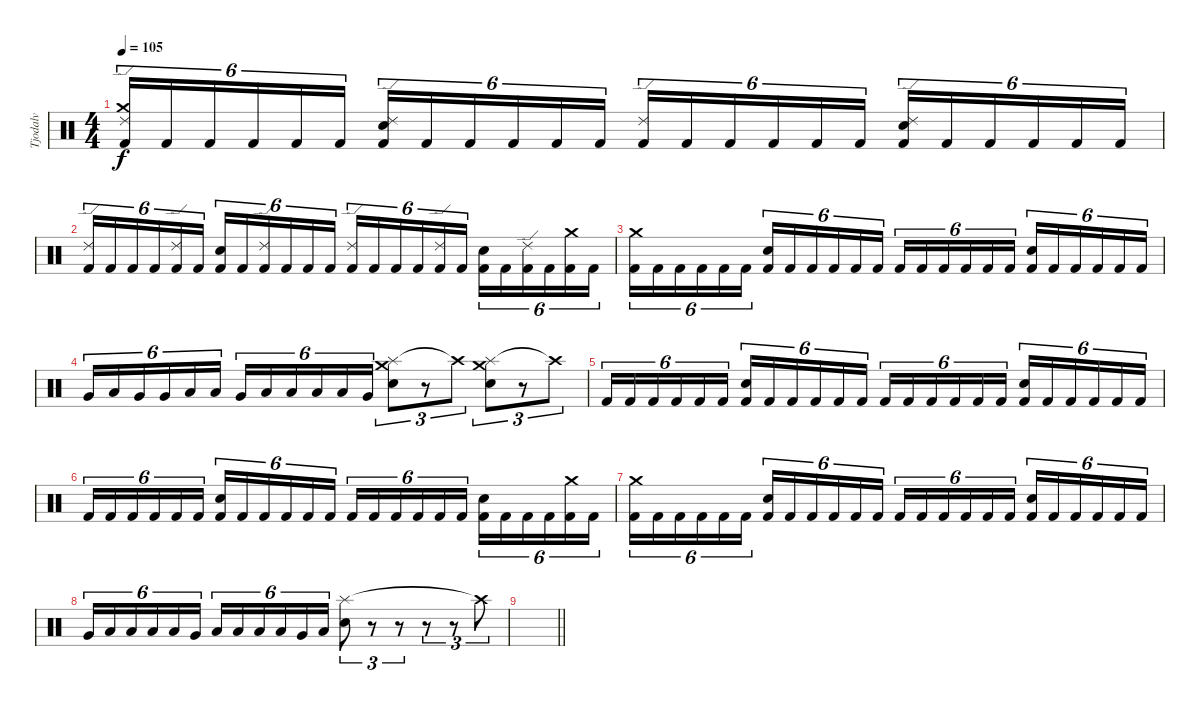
\track ("Tjodalv" "Tjodalv") {instrument percussion}
\staff {score}
\articulation defaults
\ts (4 4)
\tempo 105
\clef neutral
\ks c
("Kick (hit) 2" "Crash medium (hit)" "Ride (edge) 2").16{tu (6 4) dy f} "Kick (hit) 2".16{tu (6 4)} "Kick (hit) 2".16{tu (6 4)} "Kick (hit) 2".16{tu (6 4)} "Kick (hit) 2".16{tu (6 4)} "Kick (hit) 2".16{tu (6 4)} ("Kick (hit) 2" "Snare (hit) 2" "Ride (edge) 2").16{tu (6 4)} "Kick (hit) 2".16{tu (6 4)} "Kick (hit) 2".16{tu (6 4)} "Kick (hit) 2".16{tu (6 4)} "Kick (hit) 2".16{tu (6 4)} "Kick (hit) 2".16{tu (6 4)} ("Kick (hit) 2" "Ride (edge) 2").16{tu (6 4)} "Kick (hit) 2".16{tu (6 4)} "Kick (hit) 2".16{tu (6 4)} "Kick (hit) 2".16{tu (6 4)} "Kick (hit) 2".16{tu (6 4)} "Kick (hit) 2".16{tu (6 4)} ("Kick (hit) 2" "Snare (hit) 2" "Ride (edge) 2").16{tu (6 4)} "Kick (hit) 2".16{tu (6 4)} "Kick (hit) 2".16{tu (6 4)} "Kick (hit) 2".16{tu (6 4)} "Kick (hit) 2".16{tu (6 4)} "Kick (hit) 2".16{tu (6 4)} |
("Kick (hit) 2" "Ride (edge) 2").16{tu (6 4)} "Kick (hit) 2".16{tu (6 4)} "Kick (hit) 2".16{tu (6 4)} "Kick (hit) 2".16{tu (6 4)} ("Kick (hit) 2" "Ride (edge) 2").16{tu (6 4)} "Kick (hit) 2".16{tu (6 4)} ("Kick (hit) 2" "Snare (hit) 2").16{tu (6 4)} "Kick (hit) 2".16{tu (6 4)} ("Kick (hit) 2" "Ride (edge) 2").16{tu (6 4)} "Kick (hit) 2".16{tu (6 4)} "Kick (hit) 2".16{tu (6 4)} "Kick (hit) 2".16{tu (6 4)} ("Kick (hit) 2" "Ride (edge) 2").16{tu (6 4)} "Kick (hit) 2".16{tu (6 4)} "Kick (hit) 2".16{tu (6 4)} "Kick (hit) 2".16{tu (6 4)} ("Kick (hit) 2" "Ride (edge) 2").16{tu (6 4)} "Kick (hit) 2".16{tu (6 4)} ("Kick (hit) 2" "Snare (hit) 2").16{tu (6 4)} "Kick (hit) 2".16{tu (6 4)} ("Kick (hit) 2" "Ride (edge) 2").16{tu (6 4)} "Kick (hit) 2".16{tu (6 4)} ("Kick (hit) 2" "Crash medium (hit)").16{tu (6 4)} "Kick (hit) 2".16{tu (6 4)} |
("Kick (hit) 2" "Crash medium (hit)").16{tu (6 4)} "Kick (hit) 2".16{tu (6 4)} "Kick (hit) 2".16{tu (6 4)} "Kick (hit) 2".16{tu (6 4)} "Kick (hit) 2".16{tu (6 4)} "Kick (hit) 2".16{tu (6 4)} ("Kick (hit) 2" "Snare (hit) 2").16{tu (6 4)} "Kick (hit) 2".16{tu (6 4)} "Kick (hit) 2".16{tu (6 4)} "Kick (hit) 2".16{tu (6 4)} "Kick (hit) 2".16{tu (6 4)} "Kick (hit) 2".16{tu (6 4)} "Kick (hit) 2".16{tu (6 4)} "Kick (hit) 2".16{tu (6 4)} "Kick (hit) 2".16{tu (6 4)} "Kick (hit) 2".16{tu (6 4)} "Kick (hit) 2".16{tu (6 4)} "Kick (hit) 2".16{tu (6 4)} ("Kick (hit) 2" "Snare (hit) 2").16{tu (6 4)} "Kick (hit) 2".16{tu (6 4)} "Kick (hit) 2".16{tu (6 4)} "Kick (hit) 2".16{tu (6 4)} "Kick (hit) 2".16{tu (6 4)} "Kick (hit) 2".16{tu (6 4)} |
"Very Low Tom (hit)".16{tu (6 4)} "Low Tom (hit)".16{tu (6 4)} "Very Low Tom (hit)".16{tu (6 4)} "Very Low Tom (hit)".16{tu (6 4)} "Low Tom (hit)".16{tu (6 4)} "Low Floor Tom (hit)".16{tu (6 4)} "Very Low Tom (hit)".16{tu (6 4)} "Low Floor Tom (hit)".16{tu (6 4)} "Low Tom (hit)".16{tu (6 4)} "Low Tom (hit)".16{tu (6 4)} "Low Floor Tom (hit)".16{tu (6 4)} "Very Low Tom (hit)".16{tu (6 4)} ("Splash (hit)" "Snare (hit) 2" "Crash medium (hit)").8{tu (3 2)} r.8{tu (3 2)} "Crash high (hit)"{t}.8{tu (3 2)} ("Splash (hit)" "Snare (hit) 2" "Crash medium (hit)").8{tu (3 2)} r.8{tu (3 2)} "Crash high (hit)"{t}.8{tu (3 2)} |
"Kick (hit) 2".16{tu (6 4)} "Kick (hit) 2".16{tu (6 4)} "Kick (hit) 2".16{tu (6 4)} "Kick (hit) 2".16{tu (6 4)} "Kick (hit) 2".16{tu (6 4)} "Kick (hit) 2".16{tu (6 4)} ("Kick (hit) 2" "Snare (hit) 2").16{tu (6 4)} "Kick (hit) 2".16{tu (6 4)} "Kick (hit) 2".16{tu (6 4)} "Kick (hit) 2".16{tu (6 4)} "Kick (hit) 2".16{tu (6 4)} "Kick (hit) 2".16{tu (6 4)} "Kick (hit) 2".16{tu (6 4)} "Kick (hit) 2".16{tu (6 4)} "Kick (hit) 2".16{tu (6 4)} "Kick (hit) 2".16{tu (6 4)} "Kick (hit) 2".16{tu (6 4)} "Kick (hit) 2".16{tu (6 4)} ("Kick (hit) 2" "Snare (hit) 2").16{tu (6 4)} "Kick (hit) 2".16{tu (6 4)} "Kick (hit) 2".16{tu (6 4)} "Kick (hit) 2".16{tu (6 4)} "Kick (hit) 2".16{tu (6 4)} "Kick (hit) 2".16{tu (6 4)} |
"Kick (hit) 2".16{tu (6 4)} "Kick (hit) 2".16{tu (6 4)} "Kick (hit) 2".16{tu (6 4)} "Kick (hit) 2".16{tu (6 4)} "Kick (hit) 2".16{tu (6 4)} "Kick (hit) 2".16{tu (6 4)} ("Kick (hit) 2" "Snare (hit) 2").16{tu (6 4)} "Kick (hit) 2".16{tu (6 4)} "Kick (hit) 2".16{tu (6 4)} "Kick (hit) 2".16{tu (6 4)} "Kick (hit) 2".16{tu (6 4)} "Kick (hit) 2".16{tu (6 4)} "Kick (hit) 2".16{tu (6 4)} "Kick (hit) 2".16{tu (6 4)} "Kick (hit) 2".16{tu (6 4)} "Kick (hit) 2".16{tu (6 4)} "Kick (hit) 2".16{tu (6 4)} "Kick (hit) 2".16{tu (6 4)} ("Kick (hit) 2" "Snare (hit) 2").16{tu (6 4)} "Kick (hit) 2".16{tu (6 4)} "Kick (hit) 2".16{tu (6 4)} "Kick (hit) 2".16{tu (6 4)} ("Kick (hit) 2" "Crash medium (hit)").16{tu (6 4)} "Kick (hit) 2".16{tu (6 4)} |
("Kick (hit) 2" "Crash medium (hit)").16{tu (6 4)} "Kick (hit) 2".16{tu (6 4)} "Kick (hit) 2".16{tu (6 4)} "Kick (hit) 2".16{tu (6 4)} "Kick (hit) 2".16{tu (6 4)} "Kick (hit) 2".16{tu (6 4)} ("Kick (hit) 2" "Snare (hit) 2").16{tu (6 4)} "Kick (hit) 2".16{tu (6 4)} "Kick (hit) 2".16{tu (6 4)} "Kick (hit) 2".16{tu (6 4)} "Kick (hit) 2".16{tu (6 4)} "Kick (hit) 2".16{tu (6 4)} "Kick (hit) 2".16{tu (6 4)} "Kick (hit) 2".16{tu (6 4)} "Kick (hit) 2".16{tu (6 4)} "Kick (hit) 2".16{tu (6 4)} "Kick (hit) 2".16{tu (6 4)} "Kick (hit) 2".16{tu (6 4)} ("Kick (hit) 2" "Snare (hit) 2").16{tu (6 4)} "Kick (hit) 2".16{tu (6 4)} "Kick (hit) 2".16{tu (6 4)} "Kick (hit) 2".16{tu (6 4)} "Kick (hit) 2".16{tu (6 4)} "Kick (hit) 2".16{tu (6 4)} |
"Very Low Tom (hit)".16{tu (6 4)} "Low Floor Tom (hit)".16{tu (6 4)} "Low Tom (hit)".16{tu (6 4)} "Low Tom (hit)".16{tu (6 4)} "Low Tom (hit)".16{tu (6 4)} "Very Low Tom (hit)".16{tu (6 4)} "Low Floor Tom (hit)".16{tu (6 4)} "Low Tom (hit)".16{tu (6 4)} "Low Tom (hit)".16{tu (6 4)} "Low Tom (hit)".16{tu (6 4)} "Very Low Tom (hit)".16{tu (6 4)} "Low Tom (hit)".16{tu (6 4)} ("Splash (hit)" "Snare (hit) 2").8{tu (3 2)} r.8{tu (3 2)} r.8{tu (3 2)} r.8{tu (3 2)} r.8{tu (3 2)} "Crash high (hit)"{t}.8{tu (3 2)} |
\barLineRight lightlight
